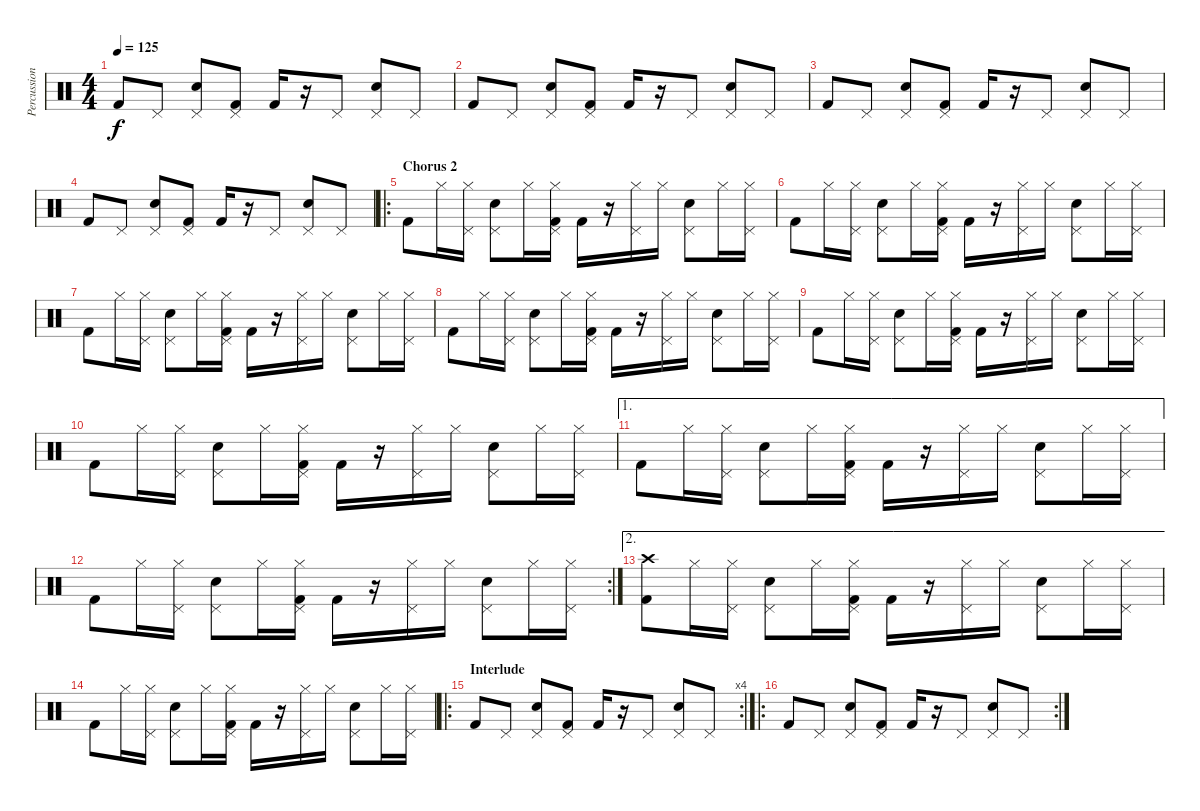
\track ("Percussions" "Percussion") {instrument percussion}
\staff {score}
\articulation defaults
\ts (4 4)
\tempo 125
\clef neutral
\ks c "Kick (hit) 2".8{dy f} "Pedal Hi-Hat (hit)".8
("Pedal Hi-Hat (hit)" "Electric Snare (hit)").8 ("Pedal Hi-Hat (hit)" "Kick (hit) 2").8 "Kick (hit) 2".16 r.16 "Pedal Hi-Hat (hit)".8 ("Pedal Hi-Hat (hit)" "Electric Snare (hit)").8 "Pedal Hi-Hat (hit)".8 |
"Kick (hit) 2".8 "Pedal Hi-Hat (hit)".8 ("Pedal Hi-Hat (hit)" "Electric Snare (hit)").8 ("Pedal Hi-Hat (hit)" "Kick (hit) 2").8 "Kick (hit) 2".16 r.16 "Pedal Hi-Hat (hit)".8 ("Pedal Hi-Hat (hit)" "Electric Snare (hit)").8 "Pedal Hi-Hat (hit)".8 |
"Kick (hit) 2".8 "Pedal Hi-Hat (hit)".8 ("Pedal Hi-Hat (hit)" "Electric Snare (hit)").8 ("Pedal Hi-Hat (hit)" "Kick (hit) 2").8 "Kick (hit) 2".16 r.16 "Pedal Hi-Hat (hit)".8 ("Pedal Hi-Hat (hit)" "Electric Snare (hit)").8 "Pedal Hi-Hat (hit)".8 |
"Kick (hit) 2".8 "Pedal Hi-Hat (hit)".8 ("Pedal Hi-Hat (hit)" "Electric Snare (hit)").8 ("Pedal Hi-Hat (hit)" "Kick (hit) 2").8 "Kick (hit) 2".16 r.16 "Pedal Hi-Hat (hit)".8 ("Pedal Hi-Hat (hit)" "Electric Snare (hit)").8 "Pedal Hi-Hat (hit)".8 |
\ro
\section ("" "Chorus 2")
"Kick (hit) 2".8 "Hi-Hat (closed)".16 ("Pedal Hi-Hat (hit)" "Hi-Hat (closed)").16 ("Pedal Hi-Hat (hit)" "Electric Snare (hit)").8 "Hi-Hat (closed)".16 ("Pedal Hi-Hat (hit)" "Hi-Hat (closed)" "Kick (hit) 2").16 "Kick (hit) 2".16 r.16 ("Pedal Hi-Hat (hit)" "Hi-Hat (closed)").16 "Hi-Hat (closed)".16 ("Pedal Hi-Hat (hit)" "Electric Snare (hit)").8 "Hi-Hat (closed)".16 ("Pedal Hi-Hat (hit)" "Hi-Hat (closed)").16 |
"Kick (hit) 2".8 "Hi-Hat (closed)".16 ("Pedal Hi-Hat (hit)" "Hi-Hat (closed)").16 ("Pedal Hi-Hat (hit)" "Electric Snare (hit)").8 "Hi-Hat (closed)".16 ("Pedal Hi-Hat (hit)" "Hi-Hat (closed)" "Kick (hit) 2").16 "Kick (hit) 2".16 r.16 ("Pedal Hi-Hat (hit)" "Hi-Hat (closed)").16 "Hi-Hat (closed)".16 ("Pedal Hi-Hat (hit)" "Electric Snare (hit)").8 "Hi-Hat (closed)".16 ("Pedal Hi-Hat (hit)" "Hi-Hat (closed)").16 |
"Kick (hit) 2".8 "Hi-Hat (closed)".16 ("Pedal Hi-Hat (hit)" "Hi-Hat (closed)").16 ("Pedal Hi-Hat (hit)" "Electric Snare (hit)").8 "Hi-Hat (closed)".16 ("Pedal Hi-Hat (hit)" "Hi-Hat (closed)" "Kick (hit) 2").16 "Kick (hit) 2".16 r.16 ("Pedal Hi-Hat (hit)" "Hi-Hat (closed)").16 "Hi-Hat (closed)".16 ("Pedal Hi-Hat (hit)" "Electric Snare (hit)").8 "Hi-Hat (closed)".16 ("Pedal Hi-Hat (hit)" "Hi-Hat (closed)").16 |
"Kick (hit) 2".8 "Hi-Hat (closed)".16 ("Pedal Hi-Hat (hit)" "Hi-Hat (closed)").16 ("Pedal Hi-Hat (hit)" "Electric Snare (hit)").8 "Hi-Hat (closed)".16 ("Pedal Hi-Hat (hit)" "Hi-Hat (closed)" "Kick (hit) 2").16 "Kick (hit) 2".16 r.16 ("Pedal Hi-Hat (hit)" "Hi-Hat (closed)").16 "Hi-Hat (closed)".16 ("Pedal Hi-Hat (hit)" "Electric Snare (hit)").8 "Hi-Hat (closed)".16 ("Pedal Hi-Hat (hit)" "Hi-Hat (closed)").16 |
"Kick (hit) 2".8 "Hi-Hat (closed)".16 ("Pedal Hi-Hat (hit)" "Hi-Hat (closed)").16 ("Pedal Hi-Hat (hit)" "Electric Snare (hit)").8 "Hi-Hat (closed)".16 ("Pedal Hi-Hat (hit)" "Hi-Hat (closed)" "Kick (hit) 2").16 "Kick (hit) 2".16 r.16 ("Pedal Hi-Hat (hit)" "Hi-Hat (closed)").16 "Hi-Hat (closed)".16 ("Pedal Hi-Hat (hit)" "Electric Snare (hit)").8 "Hi-Hat (closed)".16 ("Pedal Hi-Hat (hit)" "Hi-Hat (closed)").16 |
"Kick (hit) 2".8 "Hi-Hat (closed)".16 ("Pedal Hi-Hat (hit)" "Hi-Hat (closed)").16 ("Pedal Hi-Hat (hit)" "Electric Snare (hit)").8 "Hi-Hat (closed)".16 ("Pedal Hi-Hat (hit)" "Hi-Hat (closed)" "Kick (hit) 2").16 "Kick (hit) 2".16 r.16 ("Pedal Hi-Hat (hit)" "Hi-Hat (closed)").16 "Hi-Hat (closed)".16 ("Pedal Hi-Hat (hit)" "Electric Snare (hit)").8 "Hi-Hat (closed)".16 ("Pedal Hi-Hat (hit)" "Hi-Hat (closed)").16 |
\ae 1 "Kick (hit) 2".8 "Hi-Hat (closed)".16
("Pedal Hi-Hat (hit)" "Hi-Hat (closed)").16 ("Pedal Hi-Hat (hit)" "Electric Snare (hit)").8 "Hi-Hat (closed)".16 ("Pedal Hi-Hat (hit)" "Hi-Hat (closed)" "Kick (hit) 2").16 "Kick (hit) 2".16 r.16 ("Pedal Hi-Hat (hit)" "Hi-Hat (closed)").16 "Hi-Hat (closed)".16 ("Pedal Hi-Hat (hit)" "Electric Snare (hit)").8 "Hi-Hat (closed)".16 ("Pedal Hi-Hat (hit)" "Hi-Hat (closed)").16 |
\rc 2 "Kick (hit) 2".8 "Hi-Hat (closed)".16
("Pedal Hi-Hat (hit)" "Hi-Hat (closed)").16 ("Pedal Hi-Hat (hit)" "Electric Snare (hit)").8 "Hi-Hat (closed)".16 ("Pedal Hi-Hat (hit)" "Hi-Hat (closed)" "Kick (hit) 2").16 "Kick (hit) 2".16 r.16 ("Pedal Hi-Hat (hit)" "Hi-Hat (closed)").16 "Hi-Hat (closed)".16 ("Pedal Hi-Hat (hit)" "Electric Snare (hit)").8 "Hi-Hat (closed)".16 ("Pedal Hi-Hat (hit)" "Hi-Hat (closed)").16 |
\ae 2
("Crash high (hit)" "Kick (hit) 2").8 "Hi-Hat (closed)".16 ("Pedal Hi-Hat (hit)" "Hi-Hat (closed)").16 ("Pedal Hi-Hat (hit)" "Electric Snare (hit)").8 "Hi-Hat (closed)".16 ("Pedal Hi-Hat (hit)" "Hi-Hat (closed)" "Kick (hit) 2").16 "Kick (hit) 2".16 r.16 ("Pedal Hi-Hat (hit)" "Hi-Hat (closed)").16 "Hi-Hat (closed)".16 ("Pedal Hi-Hat (hit)" "Electric Snare (hit)").8 "Hi-Hat (closed)".16 ("Pedal Hi-Hat (hit)" "Hi-Hat (closed)").16 |
"Kick (hit) 2".8 "Hi-Hat (closed)".16 ("Pedal Hi-Hat (hit)" "Hi-Hat (closed)").16 ("Pedal Hi-Hat (hit)" "Electric Snare (hit)").8 "Hi-Hat (closed)".16 ("Pedal Hi-Hat (hit)" "Hi-Hat (closed)" "Kick (hit) 2").16 "Kick (hit) 2".16 r.16 ("Pedal Hi-Hat (hit)" "Hi-Hat (closed)").16 "Hi-Hat (closed)".16 ("Pedal Hi-Hat (hit)" "Electric Snare (hit)").8 "Hi-Hat (closed)".16 ("Pedal Hi-Hat (hit)" "Hi-Hat (closed)").16 |
\ro
\rc 4
\section ("" "Interlude")
"Kick (hit) 2".8 "Pedal Hi-Hat (hit)".8 ("Pedal Hi-Hat (hit)" "Electric Snare (hit)").8 ("Pedal Hi-Hat (hit)" "Kick (hit) 2").8 "Kick (hit) 2".16 r.16 "Pedal Hi-Hat (hit)".8 ("Pedal Hi-Hat (hit)" "Electric Snare (hit)").8 "Pedal Hi-Hat (hit)".8 |
\ro
\rc 2 "Kick (hit) 2".8 "Pedal Hi-Hat (hit)".8
("Pedal Hi-Hat (hit)" "Electric Snare (hit)").8 ("Pedal Hi-Hat (hit)" "Kick (hit) 2").8 "Kick (hit) 2".16 r.16 "Pedal Hi-Hat (hit)".8 ("Pedal Hi-Hat (hit)" "Electric Snare (hit)").8 "Pedal Hi-Hat (hit)".8
